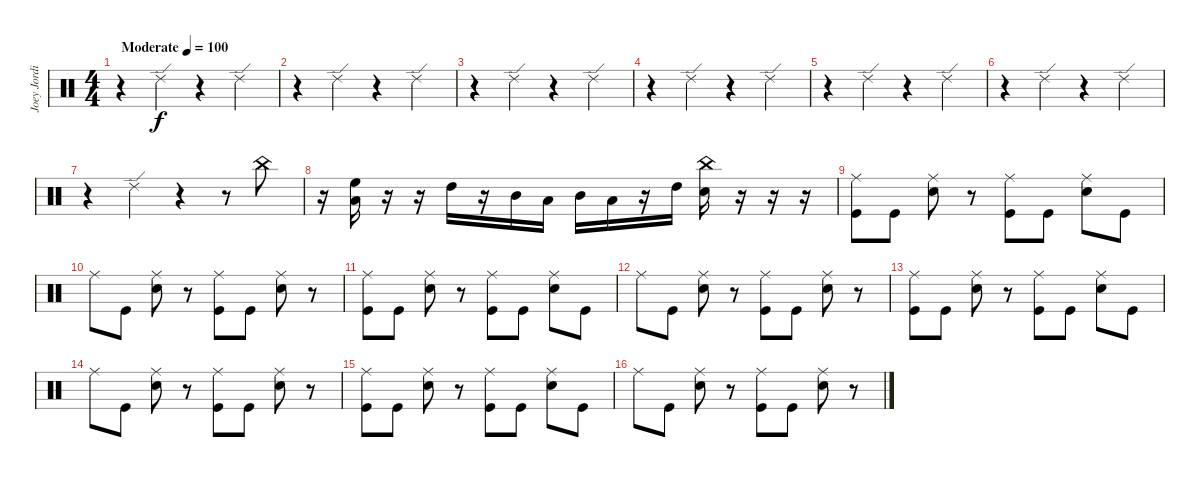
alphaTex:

\track ("Joey Jordison" "Joey Jordi") {instrument percussion}
\staff {score}
\articulation defaults
\ts (4 4)
\tempo (100 "Moderate")
\clef neutral
\ks c
r.4{dy f} "Ride (edge) 2".4 r.4 "Ride (edge) 2".4 |
r.4 "Ride (edge) 2".4 r.4 "Ride (edge) 2".4 |
r.4 "Ride (edge) 2".4 r.4 "Ride (edge) 2".4 |
r.4 "Ride (edge) 2".4 r.4 "Ride (edge) 2".4 |
r.4 "Ride (edge) 2".4 r.4 "Ride (edge) 2".4 |
r.4 "Ride (edge) 2".4 r.4 "Ride (edge) 2".4 |
r.4 "Ride (edge) 2".4 r.4 r.8 "China (hit)".8 |
r.16 ("High Floor Tom (hit)" "Low Floor Tom (hit)").16 r.16 r.16 "High Tom (hit)".16 r.16 "Mid Tom (hit)".16 "Low Tom (hit)".16 "Mid Tom (hit)".16 "Low Tom (hit)".16 r.16 "High Tom (hit)".16 ("Snare (hit) 2" "China (hit)").16 r.16 r.16 r.16 |
("Kick (hit)" "Ride (middle)").8 "Kick (hit)".8 ("Snare (hit) 2" "Ride (middle)").8 r.8 ("Kick (hit)" "Ride (middle)").8 "Kick (hit)".8 ("Snare (hit) 2" "Ride (middle)").8 "Kick (hit)".8 |
"Ride (middle)".8 "Kick (hit)".8 ("Snare (hit) 2" "Ride (middle)").8 r.8 ("Kick (hit)" "Ride (middle)").8 "Kick (hit)".8 ("Snare (hit) 2" "Ride (middle)").8 r.8 |
("Kick (hit)" "Ride (middle)").8 "Kick (hit)".8 ("Snare (hit) 2" "Ride (middle)").8 r.8 ("Kick (hit)" "Ride (middle)").8 "Kick (hit)".8 ("Snare (hit) 2" "Ride (middle)").8 "Kick (hit)".8 |
"Ride (middle)".8 "Kick (hit)".8 ("Snare (hit) 2" "Ride (middle)").8 r.8 ("Kick (hit)" "Ride (middle)").8 "Kick (hit)".8 ("Snare (hit) 2" "Ride (middle)").8 r.8 |
("Kick (hit)" "Ride (middle)").8 "Kick (hit)".8 ("Snare (hit) 2" "Ride (middle)").8 r.8 ("Kick (hit)" "Ride (middle)").8 "Kick (hit)".8 ("Snare (hit) 2" "Ride (middle)").8 "Kick (hit)".8 |
"Ride (middle)".8 "Kick (hit)".8 ("Snare (hit) 2" "Ride (middle)").8 r.8 ("Kick (hit)" "Ride (middle)").8 "Kick (hit)".8 ("Snare (hit) 2" "Ride (middle)").8 r.8 |
("Kick (hit)" "Ride (middle)").8 "Kick (hit)".8 ("Snare (hit) 2" "Ride (middle)").8 r.8 ("Kick (hit)" "Ride (middle)").8 "Kick (hit)".8 ("Snare (hit) 2" "Ride (middle)").8 "Kick (hit)".8 |
"Ride (middle)".8 "Kick (hit)".8 ("Snare (hit) 2" "Ride (middle)").8 r.8 ("Kick (hit)" "Ride (middle)").8 "Kick (hit)".8 ("Snare (hit) 2" "Ride (middle)").8 r.8
